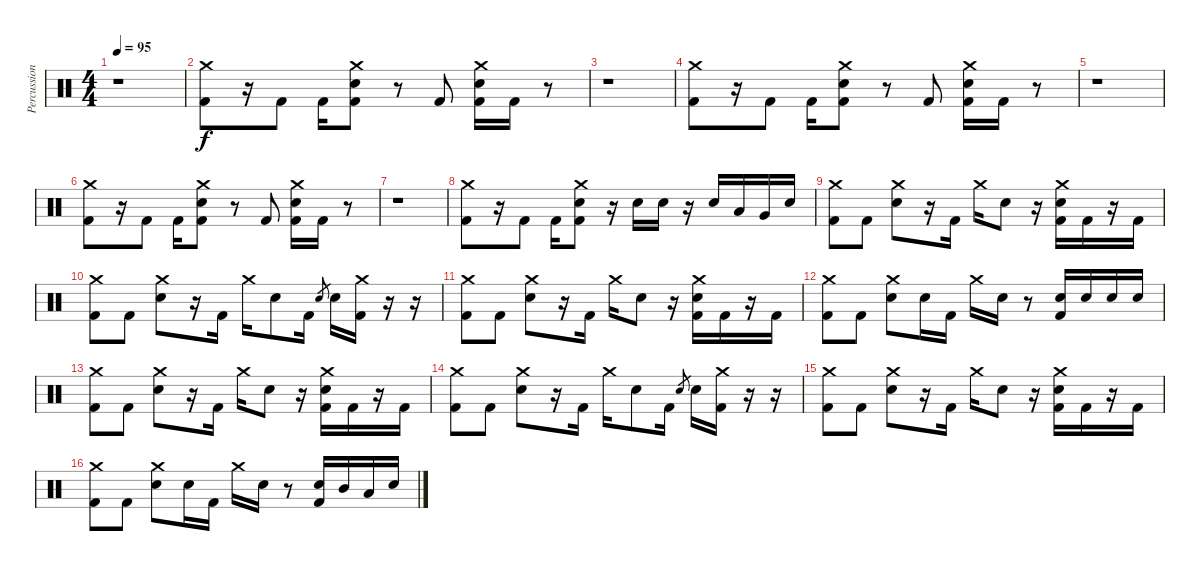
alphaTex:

\track ("Percussion" "Percussion") {instrument percussion}
\staff {score}
\articulation defaults
\ts (4 4)
\tempo 95
\clef neutral
\ks c
r.1{dy f} |
("Crash medium (hit)" "Kick (hit) 2").8 r.16 "Kick (hit) 2".8 "Kick (hit) 2".16 ("Crash medium (hit)" "Electric Snare (hit)" "Kick (hit) 2").8 r.8 "Kick (hit) 2".8 ("Crash medium (hit)" "Electric Snare (hit)" "Kick (hit) 2").16 "Kick (hit) 2".16 r.8 |
r.1 |
("Crash medium (hit)" "Kick (hit) 2").8 r.16 "Kick (hit) 2".8 "Kick (hit) 2".16 ("Crash medium (hit)" "Electric Snare (hit)" "Kick (hit) 2").8 r.8 "Kick (hit) 2".8 ("Crash medium (hit)" "Electric Snare (hit)" "Kick (hit) 2").16 "Kick (hit) 2".16 r.8 |
r.1 |
("Crash medium (hit)" "Kick (hit) 2").8 r.16 "Kick (hit) 2".8 "Kick (hit) 2".16 ("Crash medium (hit)" "Electric Snare (hit)" "Kick (hit) 2").8 r.8 "Kick (hit) 2".8 ("Crash medium (hit)" "Electric Snare (hit)" "Kick (hit) 2").16 "Kick (hit) 2".16 r.8 |
r.1 |
("Crash medium (hit)" "Kick (hit) 2").8 r.16 "Kick (hit) 2".8 "Kick (hit) 2".16 ("Crash medium (hit)" "Electric Snare (hit)" "Kick (hit) 2").8 r.16 "Electric Snare (hit)".16 "Electric Snare (hit)".16 r.16 "Electric Snare (hit)".16 "Low Tom (hit)".16 "Very Low Tom (hit)".16 "Electric Snare (hit)".16 |
("Crash medium (hit)" "Kick (hit) 2").8 "Kick (hit) 2".8 ("Crash medium (hit)" "Electric Snare (hit)").8 r.16 "Kick (hit) 2".16 "Crash medium (hit)".16 "Electric Snare (hit)".8 r.16 ("Crash medium (hit)" "Electric Snare (hit)" "Kick (hit) 2").16 "Kick (hit) 2".16 r.16 "Kick (hit) 2".16 |
("Crash medium (hit)" "Kick (hit) 2").8 "Kick (hit) 2".8 ("Crash medium (hit)" "Electric Snare (hit)").8 r.16 "Kick (hit) 2".16 "Crash medium (hit)".16 "Electric Snare (hit)".8 "Kick (hit) 2".16 "Electric Snare (hit)".8{gr} "Electric Snare (hit)".16 ("Crash medium (hit)" "Kick (hit) 2").16 r.16 r.16 |
("Crash medium (hit)" "Kick (hit) 2").8 "Kick (hit) 2".8 ("Crash medium (hit)" "Electric Snare (hit)").8 r.16 "Kick (hit) 2".16 "Crash medium (hit)".16 "Electric Snare (hit)".8 r.16 ("Crash medium (hit)" "Electric Snare (hit)" "Kick (hit) 2").16 "Kick (hit) 2".16 r.16 "Kick (hit) 2".16 |
("Crash medium (hit)" "Kick (hit) 2").8 "Kick (hit) 2".8 ("Crash medium (hit)" "Electric Snare (hit)").8 "Electric Snare (hit)".16 "Kick (hit) 2".16 "Crash medium (hit)".16 "Electric Snare (hit)".16 r.8 ("Electric Snare (hit)" "Kick (hit) 2").16 "Electric Snare (hit)".16 "Electric Snare (hit)".16 "Electric Snare (hit)".16 |
("Crash medium (hit)" "Kick (hit) 2").8 "Kick (hit) 2".8 ("Crash medium (hit)" "Electric Snare (hit)").8 r.16 "Kick (hit) 2".16 "Crash medium (hit)".16 "Electric Snare (hit)".8 r.16 ("Crash medium (hit)" "Electric Snare (hit)" "Kick (hit) 2").16 "Kick (hit) 2".16 r.16 "Kick (hit) 2".16 |
("Crash medium (hit)" "Kick (hit) 2").8 "Kick (hit) 2".8 ("Crash medium (hit)" "Electric Snare (hit)").8 r.16 "Kick (hit) 2".16 "Crash medium (hit)".16 "Electric Snare (hit)".8 "Kick (hit) 2".16 "Electric Snare (hit)".8{gr} "Electric Snare (hit)".16 ("Crash medium (hit)" "Kick (hit) 2").16 r.16 r.16 |
("Crash medium (hit)" "Kick (hit) 2").8 "Kick (hit) 2".8 ("Crash medium (hit)" "Electric Snare (hit)").8 r.16 "Kick (hit) 2".16 "Crash medium (hit)".16 "Electric Snare (hit)".8 r.16 ("Crash medium (hit)" "Electric Snare (hit)" "Kick (hit) 2").16 "Kick (hit) 2".16 r.16 "Kick (hit) 2".16 |
("Crash medium (hit)" "Kick (hit) 2").8 "Kick (hit) 2".8 ("Crash medium (hit)" "Electric Snare (hit)").8 "Electric Snare (hit)".16 "Kick (hit) 2".16 "Crash medium (hit)".16 "Electric Snare (hit)".16 r.8 ("Electric Snare (hit)" "Kick (hit) 2").16 "Mid Tom (hit)".16 "Low Tom (hit)".16 "Electric Snare (hit)".16
